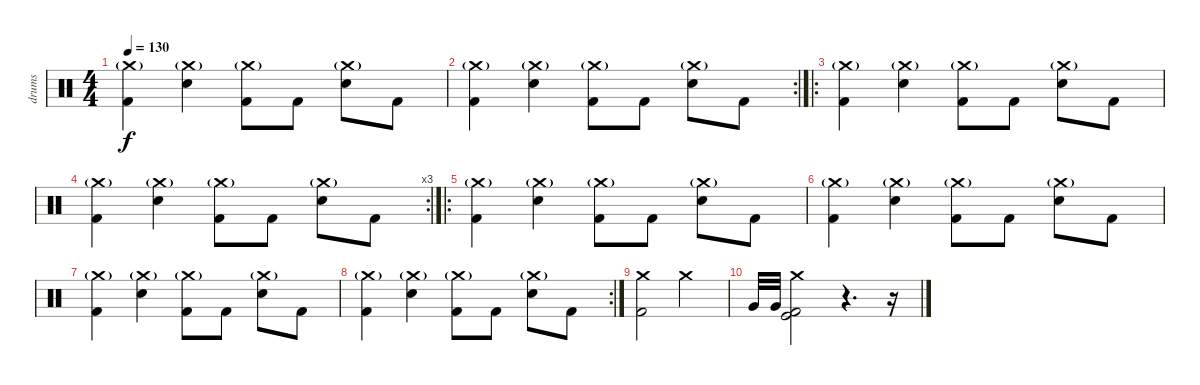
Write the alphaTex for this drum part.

\track ("drums" "drums") {instrument percussion}
\staff {score}
\articulation defaults
\ts (4 4)
\tempo 130
\clef neutral
\ks c
("Crash medium (hit)"{g} "Kick (hit) 2").4{dy f} ("Crash medium (hit)"{g} "Electric Snare (hit)").4 ("Crash medium (hit)"{g} "Kick (hit) 2").8 "Kick (hit) 2".8 ("Crash medium (hit)"{g} "Electric Snare (hit)").8 "Kick (hit) 2".8 |
\rc 2
("Crash medium (hit)"{g} "Kick (hit) 2").4 ("Crash medium (hit)"{g} "Electric Snare (hit)").4 ("Crash medium (hit)"{g} "Kick (hit) 2").8 "Kick (hit) 2".8 ("Crash medium (hit)"{g} "Electric Snare (hit)").8 "Kick (hit) 2".8 |
\ro
("Crash medium (hit)"{g} "Kick (hit) 2").4 ("Crash medium (hit)"{g} "Electric Snare (hit)").4 ("Crash medium (hit)"{g} "Kick (hit) 2").8 "Kick (hit) 2".8 ("Crash medium (hit)"{g} "Electric Snare (hit)").8 "Kick (hit) 2".8 |
\rc 3
("Crash medium (hit)"{g} "Kick (hit) 2").4 ("Crash medium (hit)"{g} "Electric Snare (hit)").4 ("Crash medium (hit)"{g} "Kick (hit) 2").8 "Kick (hit) 2".8 ("Crash medium (hit)"{g} "Electric Snare (hit)").8 "Kick (hit) 2".8 |
\ro
("Crash medium (hit)"{g} "Kick (hit) 2").4 ("Crash medium (hit)"{g} "Electric Snare (hit)").4 ("Crash medium (hit)"{g} "Kick (hit) 2").8 "Kick (hit) 2".8 ("Crash medium (hit)"{g} "Electric Snare (hit)").8 "Kick (hit) 2".8 |
("Crash medium (hit)"{g} "Kick (hit) 2").4 ("Crash medium (hit)"{g} "Electric Snare (hit)").4 ("Crash medium (hit)"{g} "Kick (hit) 2").8 "Kick (hit) 2".8 ("Crash medium (hit)"{g} "Electric Snare (hit)").8 "Kick (hit) 2".8 |
("Crash medium (hit)"{g} "Kick (hit) 2").4 ("Crash medium (hit)"{g} "Electric Snare (hit)").4 ("Crash medium (hit)"{g} "Kick (hit) 2").8 "Kick (hit) 2".8 ("Crash medium (hit)"{g} "Electric Snare (hit)").8 "Kick (hit) 2".8 |
\rc 2
("Crash medium (hit)"{g} "Kick (hit) 2").4 ("Crash medium (hit)"{g} "Electric Snare (hit)").4 ("Crash medium (hit)"{g} "Kick (hit) 2").8 "Kick (hit) 2".8 ("Crash medium (hit)"{g} "Electric Snare (hit)").8 "Kick (hit) 2".8 |
("Crash medium (hit)" "Kick (hit) 2").2 "Crash medium (hit)".2 |
"Very Low Tom (hit)".32 "Very Low Tom (hit)".32 ("Crash medium (hit)" "Kick (hit)" "Kick (hit) 2").2 r.4{d} r.16
